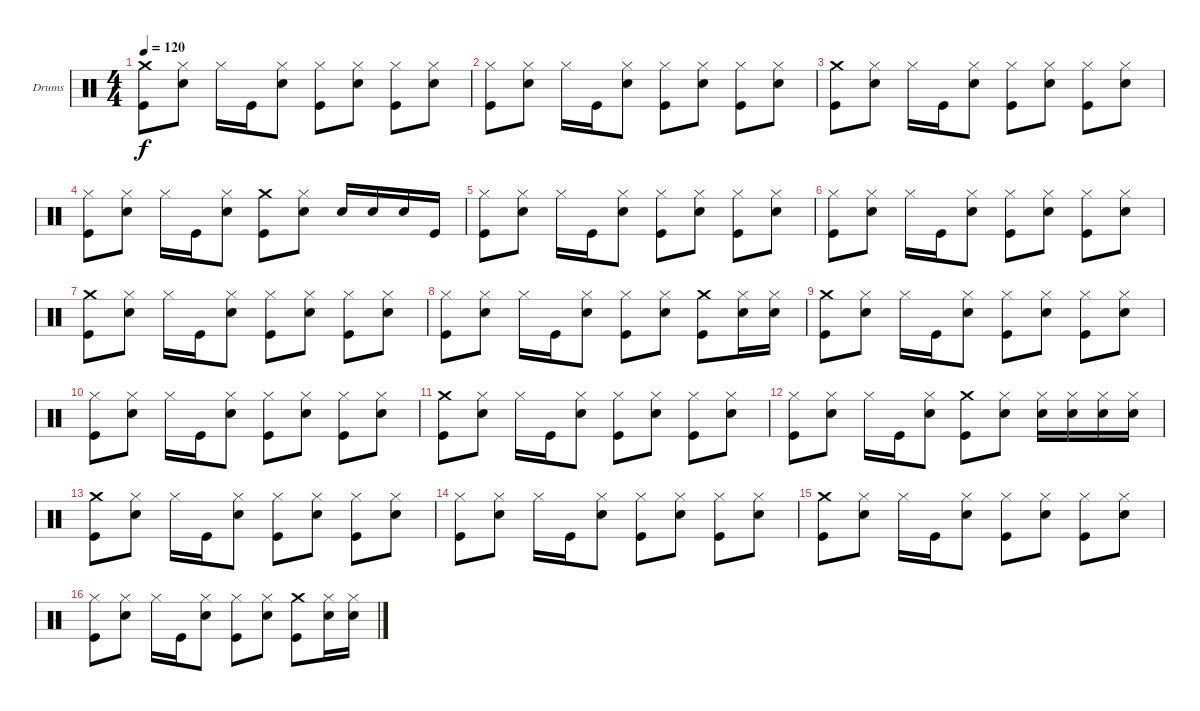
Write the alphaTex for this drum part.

\defaultSystemsLayout 4
\bracketExtendMode groupsimilarinstruments
\firstSystemTrackNameOrientation horizontal
\otherSystemsTrackNameOrientation horizontal
\track ("Drumkit" "Drums") {instrument percussion}
\staff {score}
\articulation defaults
\ts (4 4)
\tempo 120
\clef neutral
\scale
0.472222
\ks c
("Kick (hit)" "Crash medium (hit)").8{dy f} ("Snare (hit) 2" "Hi-Hat (closed)").8 "Hi-Hat (closed)".16 "Kick (hit)".16 ("Snare (hit) 2" "Hi-Hat (closed)").8 ("Kick (hit)" "Hi-Hat (closed)").8 ("Snare (hit) 2" "Hi-Hat (closed)").8 ("Kick (hit)" "Hi-Hat (closed)").8 ("Snare (hit) 2" "Hi-Hat (closed)").8 |
\scale
0.263889 ("Kick (hit)" "Hi-Hat (closed)").8 ("Snare (hit) 2" "Hi-Hat (closed)").8 "Hi-Hat (closed)".16 "Kick (hit)".16 ("Snare (hit) 2" "Hi-Hat (closed)").8 ("Kick (hit)" "Hi-Hat (closed)").8 ("Snare (hit) 2" "Hi-Hat (closed)").8 ("Kick (hit)" "Hi-Hat (closed)").8 ("Snare (hit) 2" "Hi-Hat (closed)").8 |
\scale
0.263889 ("Kick (hit)" "Crash medium (hit)").8 ("Snare (hit) 2" "Hi-Hat (closed)").8 "Hi-Hat (closed)".16 "Kick (hit)".16 ("Snare (hit) 2" "Hi-Hat (closed)").8 ("Kick (hit)" "Hi-Hat (closed)").8 ("Snare (hit) 2" "Hi-Hat (closed)").8 ("Kick (hit)" "Hi-Hat (closed)").8 ("Snare (hit) 2" "Hi-Hat (closed)").8 |
\scale
0.333333 ("Kick (hit)" "Hi-Hat (closed)").8 ("Snare (hit) 2" "Hi-Hat (closed)").8 "Hi-Hat (closed)".16 "Kick (hit)".16 ("Snare (hit) 2" "Hi-Hat (closed)").8 ("Kick (hit)" "Crash medium (hit)").8 ("Snare (hit) 2" "Hi-Hat (closed)").8 "Snare (hit) 2".16 "Snare (hit) 2".16 "Snare (hit) 2".16 "Kick (hit)".16 |
\scale
0.333333 ("Kick (hit)" "Hi-Hat (closed)").8 ("Snare (hit) 2" "Hi-Hat (closed)").8 "Hi-Hat (closed)".16 "Kick (hit)".16 ("Snare (hit) 2" "Hi-Hat (closed)").8 ("Kick (hit)" "Hi-Hat (closed)").8 ("Snare (hit) 2" "Hi-Hat (closed)").8 ("Kick (hit)" "Hi-Hat (closed)").8 ("Snare (hit) 2" "Hi-Hat (closed)").8 |
\scale
0.333333 ("Kick (hit)" "Hi-Hat (closed)").8 ("Snare (hit) 2" "Hi-Hat (closed)").8 "Hi-Hat (closed)".16 "Kick (hit)".16 ("Snare (hit) 2" "Hi-Hat (closed)").8 ("Kick (hit)" "Hi-Hat (closed)").8 ("Snare (hit) 2" "Hi-Hat (closed)").8 ("Kick (hit)" "Hi-Hat (closed)").8 ("Snare (hit) 2" "Hi-Hat (closed)").8 |
\scale
0.333333 ("Kick (hit)" "Crash medium (hit)").8 ("Snare (hit) 2" "Hi-Hat (closed)").8 "Hi-Hat (closed)".16 "Kick (hit)".16 ("Snare (hit) 2" "Hi-Hat (closed)").8 ("Kick (hit)" "Hi-Hat (closed)").8 ("Snare (hit) 2" "Hi-Hat (closed)").8 ("Kick (hit)" "Hi-Hat (closed)").8 ("Snare (hit) 2" "Hi-Hat (closed)").8 |
\scale
0.333333 ("Kick (hit)" "Hi-Hat (closed)").8 ("Snare (hit) 2" "Hi-Hat (closed)").8 "Hi-Hat (closed)".16 "Kick (hit)".16 ("Snare (hit) 2" "Hi-Hat (closed)").8 ("Kick (hit)" "Hi-Hat (closed)").8 ("Snare (hit) 2" "Hi-Hat (closed)").8 ("Kick (hit)" "Crash medium (hit)").8 ("Snare (hit) 2" "Hi-Hat (closed)").16 ("Snare (hit) 2" "Hi-Hat (closed)").16 |
\scale
0.333333 ("Kick (hit)" "Crash medium (hit)").8 ("Snare (hit) 2" "Hi-Hat (closed)").8 "Hi-Hat (closed)".16 "Kick (hit)".16 ("Snare (hit) 2" "Hi-Hat (closed)").8 ("Kick (hit)" "Hi-Hat (closed)").8 ("Snare (hit) 2" "Hi-Hat (closed)").8 ("Kick (hit)" "Hi-Hat (closed)").8 ("Snare (hit) 2" "Hi-Hat (closed)").8 |
\scale
0.333333 ("Kick (hit)" "Hi-Hat (closed)").8 ("Snare (hit) 2" "Hi-Hat (closed)").8 "Hi-Hat (closed)".16 "Kick (hit)".16 ("Snare (hit) 2" "Hi-Hat (closed)").8 ("Kick (hit)" "Hi-Hat (closed)").8 ("Snare (hit) 2" "Hi-Hat (closed)").8 ("Kick (hit)" "Hi-Hat (closed)").8 ("Snare (hit) 2" "Hi-Hat (closed)").8 |
\scale
0.333333 ("Kick (hit)" "Crash medium (hit)").8 ("Snare (hit) 2" "Hi-Hat (closed)").8 "Hi-Hat (closed)".16 "Kick (hit)".16 ("Snare (hit) 2" "Hi-Hat (closed)").8 ("Kick (hit)" "Hi-Hat (closed)").8 ("Snare (hit) 2" "Hi-Hat (closed)").8 ("Kick (hit)" "Hi-Hat (closed)").8 ("Snare (hit) 2" "Hi-Hat (closed)").8 |
\scale
0.333333 ("Kick (hit)" "Hi-Hat (closed)").8 ("Snare (hit) 2" "Hi-Hat (closed)").8 "Hi-Hat (closed)".16 "Kick (hit)".16 ("Snare (hit) 2" "Hi-Hat (closed)").8 ("Kick (hit)" "Crash medium (hit)").8 ("Snare (hit) 2" "Hi-Hat (closed)").8 ("Snare (hit) 2" "Hi-Hat (closed)").16 ("Snare (hit) 2" "Hi-Hat (closed)").16 ("Snare (hit) 2" "Hi-Hat (closed)").16 ("Snare (hit) 2" "Hi-Hat (closed)").16 |
\scale
0.333333 ("Kick (hit)" "Crash medium (hit)").8 ("Snare (hit) 2" "Hi-Hat (closed)").8 "Hi-Hat (closed)".16 "Kick (hit)".16 ("Snare (hit) 2" "Hi-Hat (closed)").8 ("Kick (hit)" "Hi-Hat (closed)").8 ("Snare (hit) 2" "Hi-Hat (closed)").8 ("Kick (hit)" "Hi-Hat (closed)").8 ("Snare (hit) 2" "Hi-Hat (closed)").8 |
\scale
0.333333 ("Kick (hit)" "Hi-Hat (closed)").8 ("Snare (hit) 2" "Hi-Hat (closed)").8 "Hi-Hat (closed)".16 "Kick (hit)".16 ("Snare (hit) 2" "Hi-Hat (closed)").8 ("Kick (hit)" "Hi-Hat (closed)").8 ("Snare (hit) 2" "Hi-Hat (closed)").8 ("Kick (hit)" "Hi-Hat (closed)").8 ("Snare (hit) 2" "Hi-Hat (closed)").8 |
\scale
0.333333 ("Kick (hit)" "Crash medium (hit)").8 ("Snare (hit) 2" "Hi-Hat (closed)").8 "Hi-Hat (closed)".16 "Kick (hit)".16 ("Snare (hit) 2" "Hi-Hat (closed)").8 ("Kick (hit)" "Hi-Hat (closed)").8 ("Snare (hit) 2" "Hi-Hat (closed)").8 ("Kick (hit)" "Hi-Hat (closed)").8 ("Snare (hit) 2" "Hi-Hat (closed)").8 |
\scale
0.333333 ("Kick (hit)" "Hi-Hat (closed)").8 ("Snare (hit) 2" "Hi-Hat (closed)").8 "Hi-Hat (closed)".16 "Kick (hit)".16 ("Snare (hit) 2" "Hi-Hat (closed)").8 ("Kick (hit)" "Hi-Hat (closed)").8 ("Snare (hit) 2" "Hi-Hat (closed)").8 ("Kick (hit)" "Crash medium (hit)").8 ("Snare (hit) 2" "Hi-Hat (closed)").16 ("Snare (hit) 2" "Hi-Hat (closed)").16
